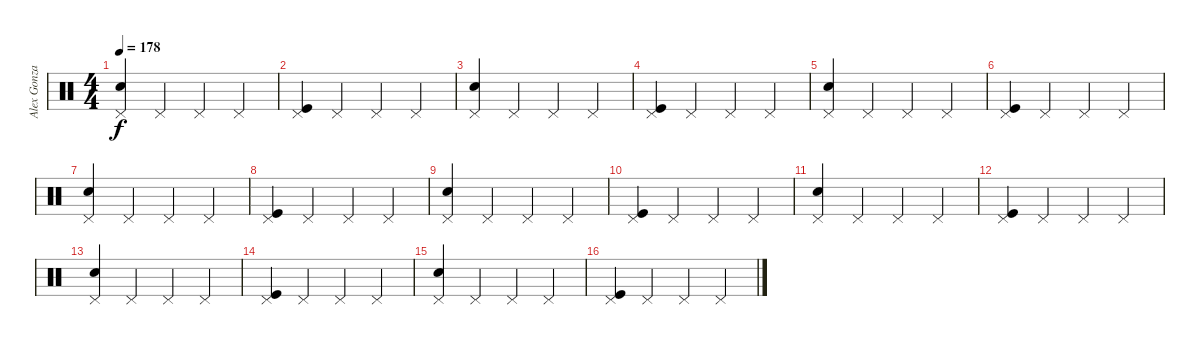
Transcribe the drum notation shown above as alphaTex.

\track ("Alex Gonzales" "Alex Gonza") {instrument percussion}
\staff {score}
\articulation defaults
\ts (4 4)
\tempo 178
\clef neutral
\ks c
("Pedal Hi-Hat (hit)" "Snare (hit) 2").4{dy f} "Pedal Hi-Hat (hit)".4 "Pedal Hi-Hat (hit)".4 "Pedal Hi-Hat (hit)".4 |
("Pedal Hi-Hat (hit)" "Kick (hit)").4 "Pedal Hi-Hat (hit)".4 "Pedal Hi-Hat (hit)".4 "Pedal Hi-Hat (hit)".4 |
("Pedal Hi-Hat (hit)" "Snare (hit) 2").4 "Pedal Hi-Hat (hit)".4 "Pedal Hi-Hat (hit)".4 "Pedal Hi-Hat (hit)".4 |
("Pedal Hi-Hat (hit)" "Kick (hit)").4 "Pedal Hi-Hat (hit)".4 "Pedal Hi-Hat (hit)".4 "Pedal Hi-Hat (hit)".4 |
("Pedal Hi-Hat (hit)" "Snare (hit) 2").4 "Pedal Hi-Hat (hit)".4 "Pedal Hi-Hat (hit)".4 "Pedal Hi-Hat (hit)".4 |
("Pedal Hi-Hat (hit)" "Kick (hit)").4 "Pedal Hi-Hat (hit)".4 "Pedal Hi-Hat (hit)".4 "Pedal Hi-Hat (hit)".4 |
("Pedal Hi-Hat (hit)" "Snare (hit) 2").4 "Pedal Hi-Hat (hit)".4 "Pedal Hi-Hat (hit)".4 "Pedal Hi-Hat (hit)".4 |
("Pedal Hi-Hat (hit)" "Kick (hit)").4 "Pedal Hi-Hat (hit)".4 "Pedal Hi-Hat (hit)".4 "Pedal Hi-Hat (hit)".4 |
("Pedal Hi-Hat (hit)" "Snare (hit) 2").4 "Pedal Hi-Hat (hit)".4 "Pedal Hi-Hat (hit)".4 "Pedal Hi-Hat (hit)".4 |
("Pedal Hi-Hat (hit)" "Kick (hit)").4 "Pedal Hi-Hat (hit)".4 "Pedal Hi-Hat (hit)".4 "Pedal Hi-Hat (hit)".4 |
("Pedal Hi-Hat (hit)" "Snare (hit) 2").4 "Pedal Hi-Hat (hit)".4 "Pedal Hi-Hat (hit)".4 "Pedal Hi-Hat (hit)".4 |
("Pedal Hi-Hat (hit)" "Kick (hit)").4 "Pedal Hi-Hat (hit)".4 "Pedal Hi-Hat (hit)".4 "Pedal Hi-Hat (hit)".4 |
("Pedal Hi-Hat (hit)" "Snare (hit) 2").4 "Pedal Hi-Hat (hit)".4 "Pedal Hi-Hat (hit)".4 "Pedal Hi-Hat (hit)".4 |
("Pedal Hi-Hat (hit)" "Kick (hit)").4 "Pedal Hi-Hat (hit)".4 "Pedal Hi-Hat (hit)".4 "Pedal Hi-Hat (hit)".4 |
("Pedal Hi-Hat (hit)" "Snare (hit) 2").4 "Pedal Hi-Hat (hit)".4 "Pedal Hi-Hat (hit)".4 "Pedal Hi-Hat (hit)".4 |
("Pedal Hi-Hat (hit)" "Kick (hit)").4 "Pedal Hi-Hat (hit)".4 "Pedal Hi-Hat (hit)".4 "Pedal Hi-Hat (hit)".4
